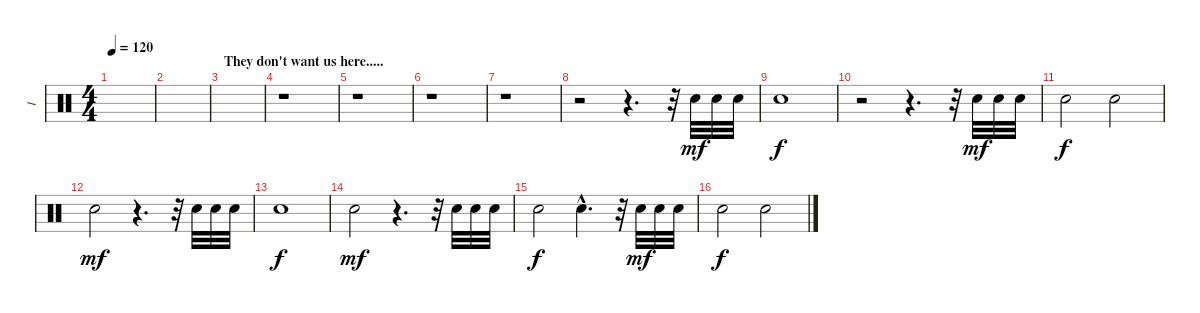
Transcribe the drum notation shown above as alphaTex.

\track ("I" "I") {instrument percussion}
\staff {score}
\articulation defaults
\ts (4 4)
\tempo 120
\clef neutral
\ks c
|
|
\section ("" "They don't want us here.....")
|
r.1 |
r.1 |
r.1 |
r.1 |
r.2 r.4{d} r.32 "Snare (hit) 2".32{dy mf} "Snare (hit) 2".32 "Snare (hit) 2".32 |
"Snare (hit) 2".1{dy f} |
r.2 r.4{d} r.32 "Snare (hit) 2".32{dy mf} "Snare (hit) 2".32 "Snare (hit) 2".32 |
"Snare (hit) 2".2{dy f} "Snare (hit) 2".2 |
"Snare (hit) 2".2{dy mf} r.4{d} r.32 "Snare (hit) 2".32 "Snare (hit) 2".32 "Snare (hit) 2".32 |
"Snare (hit) 2".1{dy f} |
"Snare (hit) 2".2{dy mf} r.4{d} r.32 "Snare (hit) 2".32 "Snare (hit) 2".32 "Snare (hit) 2".32 |
"Snare (hit) 2".2{dy f} "Snare (hit) 2"{hac}.4{d} r.32 "Snare (hit) 2".32{dy mf} "Snare (hit) 2".32 "Snare (hit) 2".32 |
"Snare (hit) 2".2{dy f} "Snare (hit) 2".2
